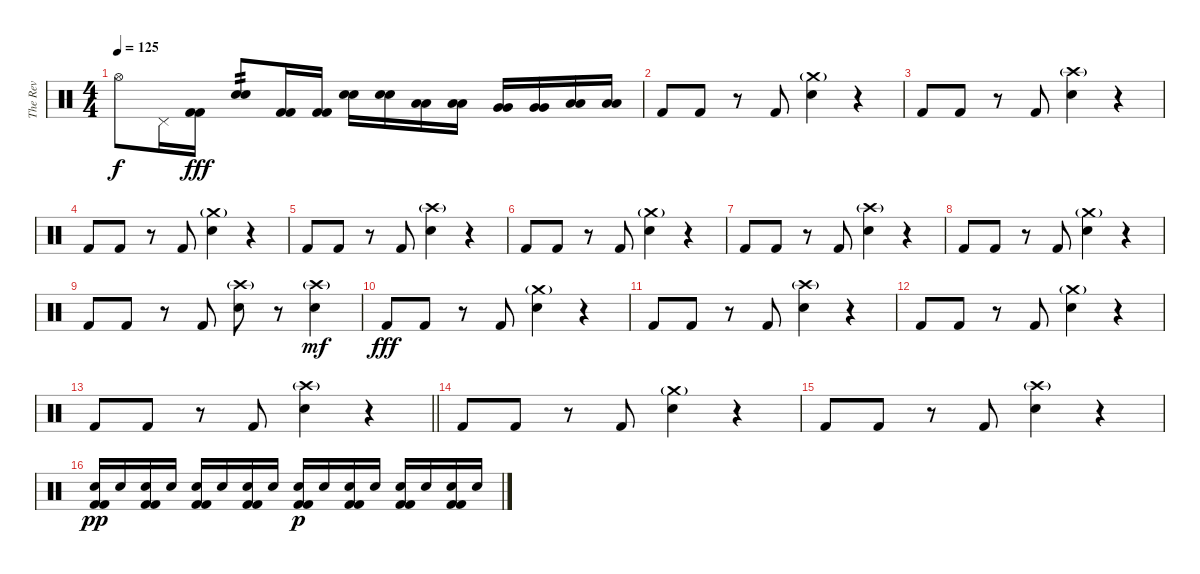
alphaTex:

\track ("The Rev" "The Rev") {mute instrument percussion}
\staff {score}
\articulation defaults
\ts (4 4)
\tempo 125
\clef neutral
\ks c "Hi-Hat (open)".8{dy f} "Pedal Hi-Hat (hit)".16
("Kick (hit) 2" "Kick (hit) 2").16{dy fff} ("Electric Snare (hit)" "Electric Snare (hit)").8{tp 2} ("Kick (hit) 2" "Kick (hit) 2").16 ("Kick (hit) 2" "Kick (hit) 2").16 ("Electric Snare (hit)" "Electric Snare (hit)").16 ("Electric Snare (hit)" "Electric Snare (hit)").16 ("Low Tom (hit)" "Low Tom (hit)").16 ("Low Tom (hit)" "Low Tom (hit)").16 ("Very Low Tom (hit)" "Very Low Tom (hit)").16 ("Very Low Tom (hit)" "Very Low Tom (hit)").16 ("Low Floor Tom (hit)" "Low Floor Tom (hit)").16 ("Low Floor Tom (hit)" "Low Floor Tom (hit)").16 |
"Kick (hit) 2".8 "Kick (hit) 2".8 r.8 "Kick (hit) 2".8 ("Crash medium (hit)"{g} "Electric Snare (hit)").4 r.4 |
"Kick (hit) 2".8 "Kick (hit) 2".8 r.8 "Kick (hit) 2".8 ("Crash high (hit)"{g} "Electric Snare (hit)").4 r.4 |
"Kick (hit) 2".8 "Kick (hit) 2".8 r.8 "Kick (hit) 2".8 ("Crash medium (hit)"{g} "Electric Snare (hit)").4 r.4 |
"Kick (hit) 2".8 "Kick (hit) 2".8 r.8 "Kick (hit) 2".8 ("Crash high (hit)"{g} "Electric Snare (hit)").4 r.4 |
"Kick (hit) 2".8 "Kick (hit) 2".8 r.8 "Kick (hit) 2".8 ("Crash medium (hit)"{g} "Electric Snare (hit)").4 r.4 |
"Kick (hit) 2".8 "Kick (hit) 2".8 r.8 "Kick (hit) 2".8 ("Crash high (hit)"{g} "Electric Snare (hit)").4 r.4 |
"Kick (hit) 2".8 "Kick (hit) 2".8 r.8 "Kick (hit) 2".8 ("Crash medium (hit)"{g} "Electric Snare (hit)").4 r.4 |
"Kick (hit) 2".8 "Kick (hit) 2".8 r.8 "Kick (hit) 2".8 ("Crash high (hit)"{g} "Electric Snare (hit)").8 r.8 ("Crash high (hit)"{g} "Electric Snare (hit)").4{dy mf} |
"Kick (hit) 2".8{dy fff} "Kick (hit) 2".8 r.8 "Kick (hit) 2".8 ("Crash medium (hit)"{g} "Electric Snare (hit)").4 r.4 |
"Kick (hit) 2".8 "Kick (hit) 2".8 r.8 "Kick (hit) 2".8 ("Crash high (hit)"{g} "Electric Snare (hit)").4 r.4 |
"Kick (hit) 2".8 "Kick (hit) 2".8 r.8 "Kick (hit) 2".8 ("Crash medium (hit)"{g} "Electric Snare (hit)").4 r.4 |
\barLineRight lightlight "Kick (hit) 2".8 "Kick (hit) 2".8
r.8 "Kick (hit) 2".8 ("Crash high (hit)"{g} "Electric Snare (hit)").4 r.4 |
"Kick (hit) 2".8 "Kick (hit) 2".8 r.8 "Kick (hit) 2".8 ("Crash medium (hit)"{g} "Electric Snare (hit)").4 r.4 |
"Kick (hit) 2".8 "Kick (hit) 2".8 r.8 "Kick (hit) 2".8 ("Crash high (hit)"{g} "Electric Snare (hit)").4 r.4 |
("Electric Snare (hit)" "Kick (hit) 2" "Kick (hit) 2").16{dy pp} "Electric Snare (hit)".16 ("Electric Snare (hit)" "Kick (hit) 2" "Kick (hit) 2").16 "Electric Snare (hit)".16 ("Electric Snare (hit)" "Kick (hit) 2" "Kick (hit) 2").16 "Electric Snare (hit)".16 ("Electric Snare (hit)" "Kick (hit) 2" "Kick (hit) 2").16 "Electric Snare (hit)".16 ("Electric Snare (hit)" "Kick (hit) 2" "Kick (hit) 2").16{dy p} "Electric Snare (hit)".16 ("Electric Snare (hit)" "Kick (hit) 2" "Kick (hit) 2").16 "Electric Snare (hit)".16 ("Electric Snare (hit)" "Kick (hit) 2" "Kick (hit) 2").16 "Electric Snare (hit)".16 ("Electric Snare (hit)" "Kick (hit) 2" "Kick (hit) 2").16 "Electric Snare (hit)".16
